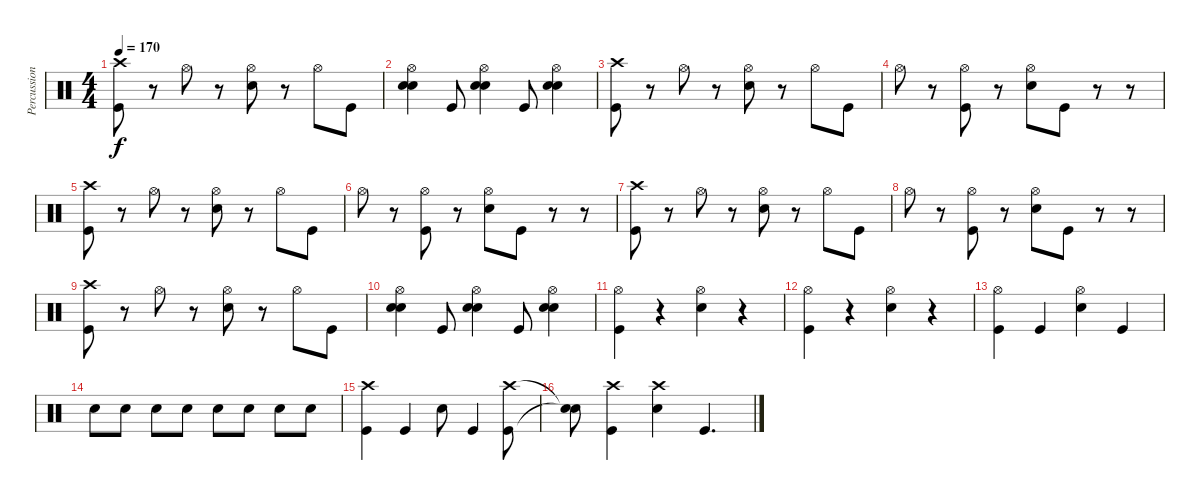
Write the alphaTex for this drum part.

\track ("Percussion" "Percussion") {instrument percussion}
\staff {score}
\articulation defaults
\ts (4 4)
\tempo 170
\clef neutral
\ks c
("Crash high (hit)" "Kick (hit)").8{dy f} r.8 "Hi-Hat (open)".8 r.8 ("Hi-Hat (open)" "Snare (hit) 2").8 r.8 "Hi-Hat (open)".8 "Kick (hit)".8 |
("Hi-Hat (open)" "Snare (hit) 2" "Snare (hit) 2").4 "Kick (hit)".8 ("Hi-Hat (open)" "Snare (hit) 2" "Snare (hit) 2").4 "Kick (hit)".8 ("Hi-Hat (open)" "Snare (hit) 2" "Snare (hit) 2").4 |
("Crash high (hit)" "Kick (hit)").8 r.8 "Hi-Hat (open)".8 r.8 ("Hi-Hat (open)" "Snare (hit) 2").8 r.8 "Hi-Hat (open)".8 "Kick (hit)".8 |
"Hi-Hat (open)".8 r.8 ("Hi-Hat (open)" "Kick (hit)").8 r.8 ("Hi-Hat (open)" "Snare (hit) 2").8 "Kick (hit)".8 r.8 r.8 |
("Crash high (hit)" "Kick (hit)").8 r.8 "Hi-Hat (open)".8 r.8 ("Hi-Hat (open)" "Snare (hit) 2").8 r.8 "Hi-Hat (open)".8 "Kick (hit)".8 |
"Hi-Hat (open)".8 r.8 ("Hi-Hat (open)" "Kick (hit)").8 r.8 ("Hi-Hat (open)" "Snare (hit) 2").8 "Kick (hit)".8 r.8 r.8 |
("Crash high (hit)" "Kick (hit)").8 r.8 "Hi-Hat (open)".8 r.8 ("Hi-Hat (open)" "Snare (hit) 2").8 r.8 "Hi-Hat (open)".8 "Kick (hit)".8 |
"Hi-Hat (open)".8 r.8 ("Hi-Hat (open)" "Kick (hit)").8 r.8 ("Hi-Hat (open)" "Snare (hit) 2").8 "Kick (hit)".8 r.8 r.8 |
("Crash high (hit)" "Kick (hit)").8 r.8 "Hi-Hat (open)".8 r.8 ("Hi-Hat (open)" "Snare (hit) 2").8 r.8 "Hi-Hat (open)".8 "Kick (hit)".8 |
("Hi-Hat (open)" "Snare (hit) 2" "Snare (hit) 2").4 "Kick (hit)".8 ("Hi-Hat (open)" "Snare (hit) 2" "Snare (hit) 2").4 "Kick (hit)".8 ("Hi-Hat (open)" "Snare (hit) 2" "Snare (hit) 2").4 |
("Hi-Hat (open)" "Kick (hit)").4 r.4 ("Hi-Hat (open)" "Snare (hit) 2").4 r.4 |
("Hi-Hat (open)" "Kick (hit)").4 r.4 ("Hi-Hat (open)" "Snare (hit) 2").4 r.4 |
("Hi-Hat (open)" "Kick (hit)").4 "Kick (hit)".4 ("Hi-Hat (open)" "Snare (hit) 2").4 "Kick (hit)".4 |
"Snare (hit) 2".8 "Snare (hit) 2".8 "Snare (hit) 2".8 "Snare (hit) 2".8 "Snare (hit) 2".8 "Snare (hit) 2".8 "Snare (hit) 2".8 "Snare (hit) 2".8 |
("Crash high (hit)" "Kick (hit)").4 "Kick (hit)".4 "Snare (hit) 2".8 "Kick (hit)".4 ("Crash high (hit)" "Kick (hit)").8 |
("Snare (hit)"{t} "Snare (hit)"{t}).8 ("Crash high (hit)" "Kick (hit)").4 ("Crash high (hit)" "Snare (hit) 2").4 "Kick (hit)".4{d}
